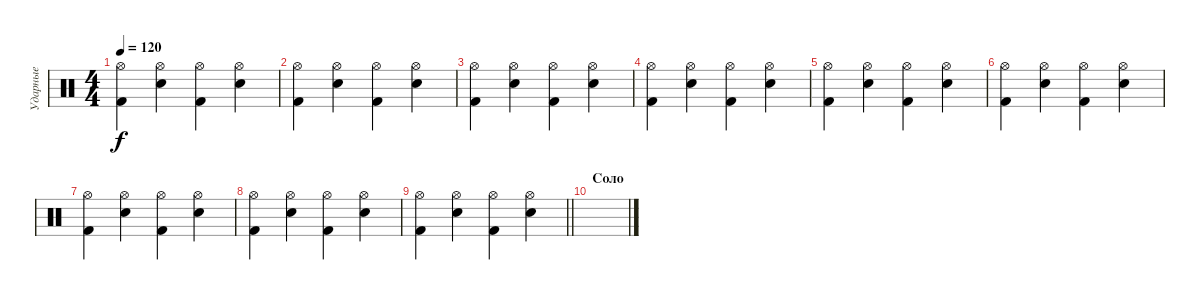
\track ("Ударные" "Ударные") {instrument percussion}
\staff {score}
\articulation defaults
\ts (4 4)
\tempo 120
\clef neutral
\ks c
("Hi-Hat (open)" "Kick (hit) 2").4{dy f} ("Hi-Hat (open)" "Snare (hit) 2").4 ("Hi-Hat (open)" "Kick (hit) 2").4 ("Hi-Hat (open)" "Snare (hit) 2").4 |
("Hi-Hat (open)" "Kick (hit) 2").4 ("Hi-Hat (open)" "Snare (hit) 2").4 ("Hi-Hat (open)" "Kick (hit) 2").4 ("Hi-Hat (open)" "Snare (hit) 2").4 |
("Hi-Hat (open)" "Kick (hit) 2").4 ("Hi-Hat (open)" "Snare (hit) 2").4 ("Hi-Hat (open)" "Kick (hit) 2").4 ("Hi-Hat (open)" "Snare (hit) 2").4 |
("Hi-Hat (open)" "Kick (hit) 2").4 ("Hi-Hat (open)" "Snare (hit) 2").4 ("Hi-Hat (open)" "Kick (hit) 2").4 ("Hi-Hat (open)" "Snare (hit) 2").4 |
("Hi-Hat (open)" "Kick (hit) 2").4 ("Hi-Hat (open)" "Snare (hit) 2").4 ("Hi-Hat (open)" "Kick (hit) 2").4 ("Hi-Hat (open)" "Snare (hit) 2").4 |
("Hi-Hat (open)" "Kick (hit) 2").4 ("Hi-Hat (open)" "Snare (hit) 2").4 ("Hi-Hat (open)" "Kick (hit) 2").4 ("Hi-Hat (open)" "Snare (hit) 2").4 |
("Hi-Hat (open)" "Kick (hit) 2").4 ("Hi-Hat (open)" "Snare (hit) 2").4 ("Hi-Hat (open)" "Kick (hit) 2").4 ("Hi-Hat (open)" "Snare (hit) 2").4 |
("Hi-Hat (open)" "Kick (hit) 2").4 ("Hi-Hat (open)" "Snare (hit) 2").4 ("Hi-Hat (open)" "Kick (hit) 2").4 ("Hi-Hat (open)" "Snare (hit) 2").4 |
\barLineRight lightlight
("Hi-Hat (open)" "Kick (hit) 2").4 ("Hi-Hat (open)" "Snare (hit) 2").4 ("Hi-Hat (open)" "Kick (hit) 2").4 ("Hi-Hat (open)" "Snare (hit) 2").4 |
\section ("" "Соло")
